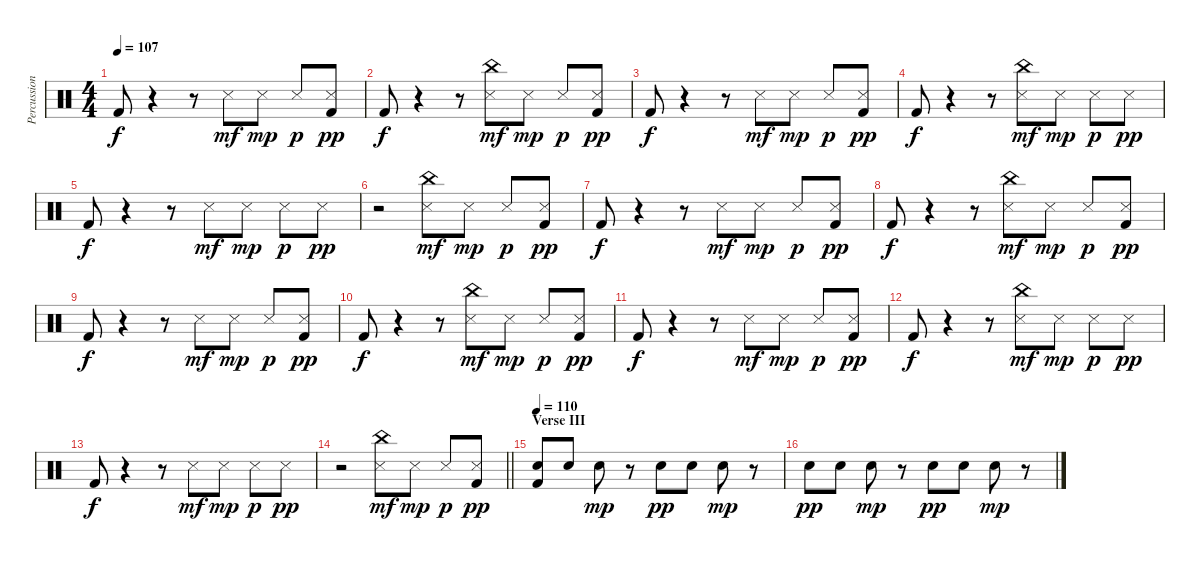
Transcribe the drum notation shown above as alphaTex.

\track ("Percussion" "Percussion") {instrument percussion}
\staff {score}
\articulation defaults
\ts (4 4)
\tempo 107
\clef neutral
\ks c "Kick (hit) 2".8{dy f}
r.4 r.8 "Snare (side stick) 3".8{dy mf} "Snare (side stick) 3".8{dy mp} "Snare (side stick) 3".8{dy p} ("Kick (hit) 2" "Snare (side stick) 3").8{dy pp} |
"Kick (hit) 2".8{dy f} r.4 r.8 ("China (hit)" "Snare (side stick) 3").8{dy mf} "Snare (side stick) 3".8{dy mp} "Snare (side stick) 3".8{dy p} ("Kick (hit) 2" "Snare (side stick) 3").8{dy pp} |
"Kick (hit) 2".8{dy f} r.4 r.8 "Snare (side stick) 3".8{dy mf} "Snare (side stick) 3".8{dy mp} "Snare (side stick) 3".8{dy p} ("Kick (hit) 2" "Snare (side stick) 3").8{dy pp} |
"Kick (hit) 2".8{dy f} r.4 r.8 ("China (hit)" "Snare (side stick) 3").8{dy mf} "Snare (side stick) 3".8{dy mp} "Snare (side stick) 3".8{dy p} "Snare (side stick) 3".8{dy pp} |
"Kick (hit) 2".8{dy f} r.4 r.8 "Snare (side stick) 3".8{dy mf} "Snare (side stick) 3".8{dy mp} "Snare (side stick) 3".8{dy p} "Snare (side stick) 3".8{dy pp} |
r.2 ("China (hit)" "Snare (side stick) 3").8{dy mf} "Snare (side stick) 3".8{dy mp} "Snare (side stick) 3".8{dy p} ("Kick (hit) 2" "Snare (side stick) 3").8{dy pp} |
"Kick (hit) 2".8{dy f} r.4 r.8 "Snare (side stick) 3".8{dy mf} "Snare (side stick) 3".8{dy mp} "Snare (side stick) 3".8{dy p} ("Kick (hit) 2" "Snare (side stick) 3").8{dy pp} |
"Kick (hit) 2".8{dy f} r.4 r.8 ("China (hit)" "Snare (side stick) 3").8{dy mf} "Snare (side stick) 3".8{dy mp} "Snare (side stick) 3".8{dy p} ("Kick (hit) 2" "Snare (side stick) 3").8{dy pp} |
"Kick (hit) 2".8{dy f} r.4 r.8 "Snare (side stick) 3".8{dy mf} "Snare (side stick) 3".8{dy mp} "Snare (side stick) 3".8{dy p} ("Kick (hit) 2" "Snare (side stick) 3").8{dy pp} |
"Kick (hit) 2".8{dy f} r.4 r.8 ("China (hit)" "Snare (side stick) 3").8{dy mf} "Snare (side stick) 3".8{dy mp} "Snare (side stick) 3".8{dy p} ("Kick (hit) 2" "Snare (side stick) 3").8{dy pp} |
"Kick (hit) 2".8{dy f} r.4 r.8 "Snare (side stick) 3".8{dy mf} "Snare (side stick) 3".8{dy mp} "Snare (side stick) 3".8{dy p} ("Kick (hit) 2" "Snare (side stick) 3").8{dy pp} |
"Kick (hit) 2".8{dy f} r.4 r.8 ("China (hit)" "Snare (side stick) 3").8{dy mf} "Snare (side stick) 3".8{dy mp} "Snare (side stick) 3".8{dy p} "Snare (side stick) 3".8{dy pp} |
"Kick (hit) 2".8{dy f} r.4 r.8 "Snare (side stick) 3".8{dy mf} "Snare (side stick) 3".8{dy mp} "Snare (side stick) 3".8{dy p} "Snare (side stick) 3".8{dy pp} |
\barLineRight lightlight
r.2 ("China (hit)" "Snare (side stick) 3").8{dy mf} "Snare (side stick) 3".8{dy mp} "Snare (side stick) 3".8{dy p} ("Kick (hit) 2" "Snare (side stick) 3").8{dy pp} |
\section ("" "Verse III")
\tempo 110
("Kick (hit) 2" "Hand Clap (hit)").8 "Hand Clap (hit)".8 "Hand Clap (hit)".8{dy mp} r.8 "Hand Clap (hit)".8{dy pp} "Hand Clap (hit)".8 "Hand Clap (hit)".8{dy mp} r.8 |
"Hand Clap (hit)".8{dy pp} "Hand Clap (hit)".8 "Hand Clap (hit)".8{dy mp} r.8 "Hand Clap (hit)".8{dy pp} "Hand Clap (hit)".8 "Hand Clap (hit)".8{dy mp} r.8
